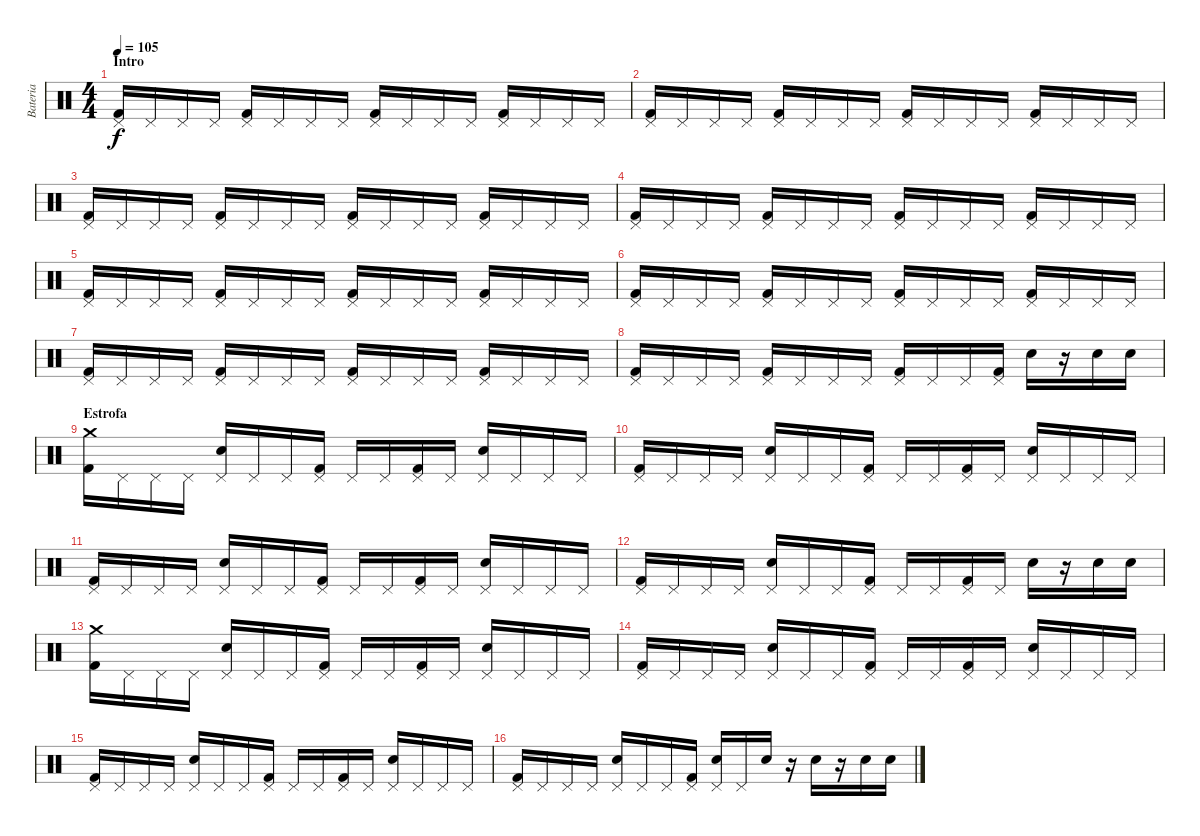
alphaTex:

\track ("Bateria" "Bateria") {instrument percussion}
\staff {score}
\articulation defaults
\ts (4 4)
\section ("" "Intro")
\tempo 105
\clef neutral
\ks c
("Pedal Hi-Hat (hit)" "Kick (hit) 2").16{dy f} "Pedal Hi-Hat (hit)".16 "Pedal Hi-Hat (hit)".16 "Pedal Hi-Hat (hit)".16 ("Pedal Hi-Hat (hit)" "Kick (hit) 2").16 "Pedal Hi-Hat (hit)".16 "Pedal Hi-Hat (hit)".16 "Pedal Hi-Hat (hit)".16 ("Pedal Hi-Hat (hit)" "Kick (hit) 2").16 "Pedal Hi-Hat (hit)".16 "Pedal Hi-Hat (hit)".16 "Pedal Hi-Hat (hit)".16 ("Pedal Hi-Hat (hit)" "Kick (hit) 2").16 "Pedal Hi-Hat (hit)".16 "Pedal Hi-Hat (hit)".16 "Pedal Hi-Hat (hit)".16 |
("Pedal Hi-Hat (hit)" "Kick (hit) 2").16 "Pedal Hi-Hat (hit)".16 "Pedal Hi-Hat (hit)".16 "Pedal Hi-Hat (hit)".16 ("Pedal Hi-Hat (hit)" "Kick (hit) 2").16 "Pedal Hi-Hat (hit)".16 "Pedal Hi-Hat (hit)".16 "Pedal Hi-Hat (hit)".16 ("Pedal Hi-Hat (hit)" "Kick (hit) 2").16 "Pedal Hi-Hat (hit)".16 "Pedal Hi-Hat (hit)".16 "Pedal Hi-Hat (hit)".16 ("Pedal Hi-Hat (hit)" "Kick (hit) 2").16 "Pedal Hi-Hat (hit)".16 "Pedal Hi-Hat (hit)".16 "Pedal Hi-Hat (hit)".16 |
("Pedal Hi-Hat (hit)" "Kick (hit) 2").16 "Pedal Hi-Hat (hit)".16 "Pedal Hi-Hat (hit)".16 "Pedal Hi-Hat (hit)".16 ("Pedal Hi-Hat (hit)" "Kick (hit) 2").16 "Pedal Hi-Hat (hit)".16 "Pedal Hi-Hat (hit)".16 "Pedal Hi-Hat (hit)".16 ("Pedal Hi-Hat (hit)" "Kick (hit) 2").16 "Pedal Hi-Hat (hit)".16 "Pedal Hi-Hat (hit)".16 "Pedal Hi-Hat (hit)".16 ("Pedal Hi-Hat (hit)" "Kick (hit) 2").16 "Pedal Hi-Hat (hit)".16 "Pedal Hi-Hat (hit)".16 "Pedal Hi-Hat (hit)".16 |
("Pedal Hi-Hat (hit)" "Kick (hit) 2").16 "Pedal Hi-Hat (hit)".16 "Pedal Hi-Hat (hit)".16 "Pedal Hi-Hat (hit)".16 ("Pedal Hi-Hat (hit)" "Kick (hit) 2").16 "Pedal Hi-Hat (hit)".16 "Pedal Hi-Hat (hit)".16 "Pedal Hi-Hat (hit)".16 ("Pedal Hi-Hat (hit)" "Kick (hit) 2").16 "Pedal Hi-Hat (hit)".16 "Pedal Hi-Hat (hit)".16 "Pedal Hi-Hat (hit)".16 ("Pedal Hi-Hat (hit)" "Kick (hit) 2").16 "Pedal Hi-Hat (hit)".16 "Pedal Hi-Hat (hit)".16 "Pedal Hi-Hat (hit)".16 |
("Pedal Hi-Hat (hit)" "Kick (hit) 2").16 "Pedal Hi-Hat (hit)".16 "Pedal Hi-Hat (hit)".16 "Pedal Hi-Hat (hit)".16 ("Pedal Hi-Hat (hit)" "Kick (hit) 2").16 "Pedal Hi-Hat (hit)".16 "Pedal Hi-Hat (hit)".16 "Pedal Hi-Hat (hit)".16 ("Pedal Hi-Hat (hit)" "Kick (hit) 2").16 "Pedal Hi-Hat (hit)".16 "Pedal Hi-Hat (hit)".16 "Pedal Hi-Hat (hit)".16 ("Pedal Hi-Hat (hit)" "Kick (hit) 2").16 "Pedal Hi-Hat (hit)".16 "Pedal Hi-Hat (hit)".16 "Pedal Hi-Hat (hit)".16 |
("Pedal Hi-Hat (hit)" "Kick (hit) 2").16 "Pedal Hi-Hat (hit)".16 "Pedal Hi-Hat (hit)".16 "Pedal Hi-Hat (hit)".16 ("Pedal Hi-Hat (hit)" "Kick (hit) 2").16 "Pedal Hi-Hat (hit)".16 "Pedal Hi-Hat (hit)".16 "Pedal Hi-Hat (hit)".16 ("Pedal Hi-Hat (hit)" "Kick (hit) 2").16 "Pedal Hi-Hat (hit)".16 "Pedal Hi-Hat (hit)".16 "Pedal Hi-Hat (hit)".16 ("Pedal Hi-Hat (hit)" "Kick (hit) 2").16 "Pedal Hi-Hat (hit)".16 "Pedal Hi-Hat (hit)".16 "Pedal Hi-Hat (hit)".16 |
("Pedal Hi-Hat (hit)" "Kick (hit) 2").16 "Pedal Hi-Hat (hit)".16 "Pedal Hi-Hat (hit)".16 "Pedal Hi-Hat (hit)".16 ("Pedal Hi-Hat (hit)" "Kick (hit) 2").16 "Pedal Hi-Hat (hit)".16 "Pedal Hi-Hat (hit)".16 "Pedal Hi-Hat (hit)".16 ("Pedal Hi-Hat (hit)" "Kick (hit) 2").16 "Pedal Hi-Hat (hit)".16 "Pedal Hi-Hat (hit)".16 "Pedal Hi-Hat (hit)".16 ("Pedal Hi-Hat (hit)" "Kick (hit) 2").16 "Pedal Hi-Hat (hit)".16 "Pedal Hi-Hat (hit)".16 "Pedal Hi-Hat (hit)".16 |
("Pedal Hi-Hat (hit)" "Kick (hit) 2").16 "Pedal Hi-Hat (hit)".16 "Pedal Hi-Hat (hit)".16 "Pedal Hi-Hat (hit)".16 ("Pedal Hi-Hat (hit)" "Kick (hit) 2").16 "Pedal Hi-Hat (hit)".16 "Pedal Hi-Hat (hit)".16 "Pedal Hi-Hat (hit)".16 ("Pedal Hi-Hat (hit)" "Kick (hit) 2").16 "Pedal Hi-Hat (hit)".16 "Pedal Hi-Hat (hit)".16 ("Pedal Hi-Hat (hit)" "Kick (hit) 2").16 "Electric Snare (hit)".16 r.16 "Electric Snare (hit)".16 "Electric Snare (hit)".16 |
\section ("" "Estrofa")
("Crash medium (hit)" "Kick (hit) 2").16 "Pedal Hi-Hat (hit)".16 "Pedal Hi-Hat (hit)".16 "Pedal Hi-Hat (hit)".16 ("Pedal Hi-Hat (hit)" "Electric Snare (hit)").16 "Pedal Hi-Hat (hit)".16 "Pedal Hi-Hat (hit)".16 ("Pedal Hi-Hat (hit)" "Kick (hit) 2").16 "Pedal Hi-Hat (hit)".16 "Pedal Hi-Hat (hit)".16 ("Pedal Hi-Hat (hit)" "Kick (hit) 2").16 "Pedal Hi-Hat (hit)".16 ("Pedal Hi-Hat (hit)" "Electric Snare (hit)").16 "Pedal Hi-Hat (hit)".16 "Pedal Hi-Hat (hit)".16 "Pedal Hi-Hat (hit)".16 |
("Pedal Hi-Hat (hit)" "Kick (hit) 2").16 "Pedal Hi-Hat (hit)".16 "Pedal Hi-Hat (hit)".16 "Pedal Hi-Hat (hit)".16 ("Pedal Hi-Hat (hit)" "Electric Snare (hit)").16 "Pedal Hi-Hat (hit)".16 "Pedal Hi-Hat (hit)".16 ("Pedal Hi-Hat (hit)" "Kick (hit) 2").16 "Pedal Hi-Hat (hit)".16 "Pedal Hi-Hat (hit)".16 ("Pedal Hi-Hat (hit)" "Kick (hit) 2").16 "Pedal Hi-Hat (hit)".16 ("Pedal Hi-Hat (hit)" "Electric Snare (hit)").16 "Pedal Hi-Hat (hit)".16 "Pedal Hi-Hat (hit)".16 "Pedal Hi-Hat (hit)".16 |
("Pedal Hi-Hat (hit)" "Kick (hit) 2").16 "Pedal Hi-Hat (hit)".16 "Pedal Hi-Hat (hit)".16 "Pedal Hi-Hat (hit)".16 ("Pedal Hi-Hat (hit)" "Electric Snare (hit)").16 "Pedal Hi-Hat (hit)".16 "Pedal Hi-Hat (hit)".16 ("Pedal Hi-Hat (hit)" "Kick (hit) 2").16 "Pedal Hi-Hat (hit)".16 "Pedal Hi-Hat (hit)".16 ("Pedal Hi-Hat (hit)" "Kick (hit) 2").16 "Pedal Hi-Hat (hit)".16 ("Pedal Hi-Hat (hit)" "Electric Snare (hit)").16 "Pedal Hi-Hat (hit)".16 "Pedal Hi-Hat (hit)".16 "Pedal Hi-Hat (hit)".16 |
("Pedal Hi-Hat (hit)" "Kick (hit) 2").16 "Pedal Hi-Hat (hit)".16 "Pedal Hi-Hat (hit)".16 "Pedal Hi-Hat (hit)".16 ("Pedal Hi-Hat (hit)" "Electric Snare (hit)").16 "Pedal Hi-Hat (hit)".16 "Pedal Hi-Hat (hit)".16 ("Pedal Hi-Hat (hit)" "Kick (hit) 2").16 "Pedal Hi-Hat (hit)".16 "Pedal Hi-Hat (hit)".16 ("Pedal Hi-Hat (hit)" "Kick (hit) 2").16 "Pedal Hi-Hat (hit)".16 "Electric Snare (hit)".16 r.16 "Electric Snare (hit)".16 "Electric Snare (hit)".16 |
("Crash medium (hit)" "Kick (hit) 2").16 "Pedal Hi-Hat (hit)".16 "Pedal Hi-Hat (hit)".16 "Pedal Hi-Hat (hit)".16 ("Pedal Hi-Hat (hit)" "Electric Snare (hit)").16 "Pedal Hi-Hat (hit)".16 "Pedal Hi-Hat (hit)".16 ("Pedal Hi-Hat (hit)" "Kick (hit) 2").16 "Pedal Hi-Hat (hit)".16 "Pedal Hi-Hat (hit)".16 ("Pedal Hi-Hat (hit)" "Kick (hit) 2").16 "Pedal Hi-Hat (hit)".16 ("Pedal Hi-Hat (hit)" "Electric Snare (hit)").16 "Pedal Hi-Hat (hit)".16 "Pedal Hi-Hat (hit)".16 "Pedal Hi-Hat (hit)".16 |
("Pedal Hi-Hat (hit)" "Kick (hit) 2").16 "Pedal Hi-Hat (hit)".16 "Pedal Hi-Hat (hit)".16 "Pedal Hi-Hat (hit)".16 ("Pedal Hi-Hat (hit)" "Electric Snare (hit)").16 "Pedal Hi-Hat (hit)".16 "Pedal Hi-Hat (hit)".16 ("Pedal Hi-Hat (hit)" "Kick (hit) 2").16 "Pedal Hi-Hat (hit)".16 "Pedal Hi-Hat (hit)".16 ("Pedal Hi-Hat (hit)" "Kick (hit) 2").16 "Pedal Hi-Hat (hit)".16 ("Pedal Hi-Hat (hit)" "Electric Snare (hit)").16 "Pedal Hi-Hat (hit)".16 "Pedal Hi-Hat (hit)".16 "Pedal Hi-Hat (hit)".16 |
("Pedal Hi-Hat (hit)" "Kick (hit) 2").16 "Pedal Hi-Hat (hit)".16 "Pedal Hi-Hat (hit)".16 "Pedal Hi-Hat (hit)".16 ("Pedal Hi-Hat (hit)" "Electric Snare (hit)").16 "Pedal Hi-Hat (hit)".16 "Pedal Hi-Hat (hit)".16 ("Pedal Hi-Hat (hit)" "Kick (hit) 2").16 "Pedal Hi-Hat (hit)".16 "Pedal Hi-Hat (hit)".16 ("Pedal Hi-Hat (hit)" "Kick (hit) 2").16 "Pedal Hi-Hat (hit)".16 ("Pedal Hi-Hat (hit)" "Electric Snare (hit)").16 "Pedal Hi-Hat (hit)".16 "Pedal Hi-Hat (hit)".16 "Pedal Hi-Hat (hit)".16 |
("Pedal Hi-Hat (hit)" "Kick (hit) 2").16 "Pedal Hi-Hat (hit)".16 "Pedal Hi-Hat (hit)".16 "Pedal Hi-Hat (hit)".16 ("Pedal Hi-Hat (hit)" "Electric Snare (hit)").16 "Pedal Hi-Hat (hit)".16 "Pedal Hi-Hat (hit)".16 ("Pedal Hi-Hat (hit)" "Kick (hit) 2").16 ("Pedal Hi-Hat (hit)" "Electric Snare (hit)").16 "Pedal Hi-Hat (hit)".16 "Electric Snare (hit)".16 r.16 "Electric Snare (hit)".16 r.16 "Electric Snare (hit)".16 "Electric Snare (hit)".16
